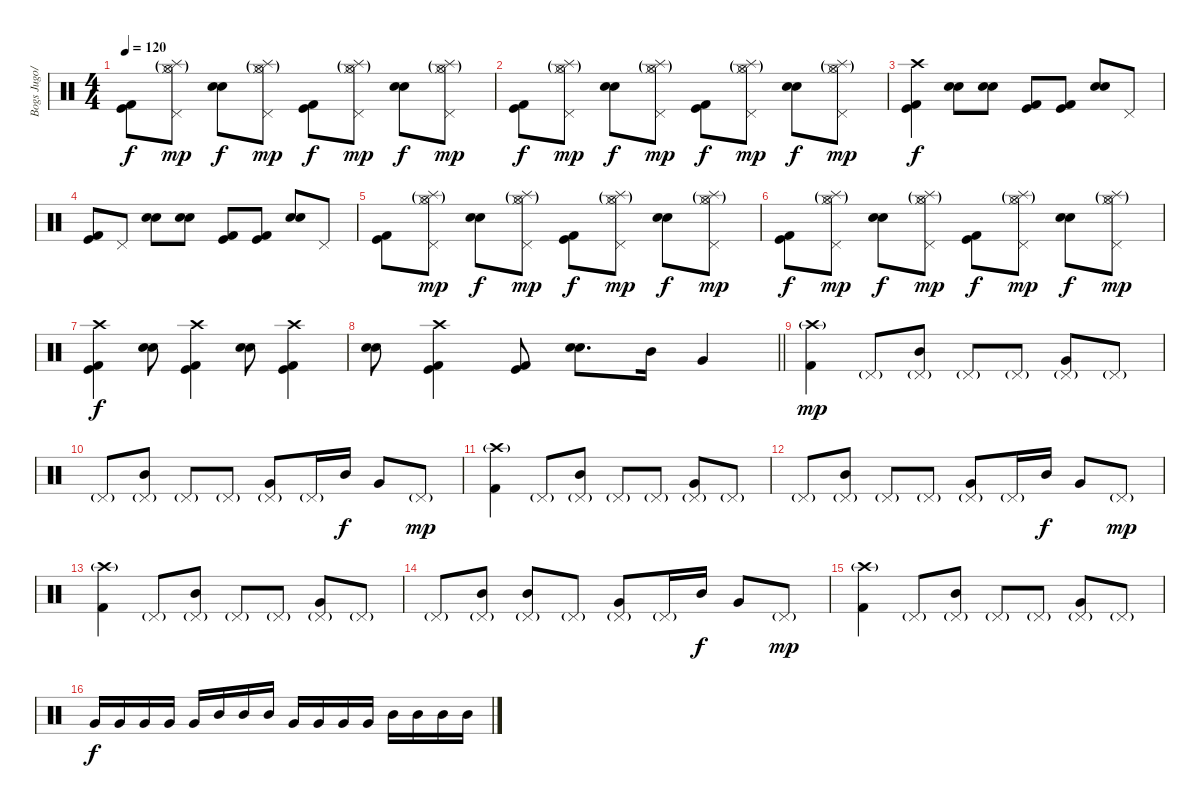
\track ("Bogs Jugo/Drums" "Bogs Jugo/") {instrument percussion}
\staff {score}
\articulation defaults
\ts (4 4)
\tempo 120
\clef neutral
\ks c
("Kick (hit) 2" "Kick (hit)").8{dy f} ("Hi-Hat (open)"{g} "Splash (hit)"{g} "Pedal Hi-Hat (hit)" "Hi-Hat (closed)").8{dy mp} ("Electric Snare (hit)" "Snare (hit) 2").8{dy f} ("Hi-Hat (open)"{g} "Splash (hit)"{g} "Pedal Hi-Hat (hit)" "Hi-Hat (closed)").8{dy mp} ("Kick (hit) 2" "Kick (hit)").8{dy f} ("Hi-Hat (open)"{g} "Splash (hit)"{g} "Pedal Hi-Hat (hit)" "Hi-Hat (closed)").8{dy mp} ("Electric Snare (hit)" "Snare (hit) 2").8{dy f} ("Hi-Hat (open)"{g} "Splash (hit)"{g} "Pedal Hi-Hat (hit)" "Hi-Hat (closed)").8{dy mp} |
("Kick (hit) 2" "Kick (hit)").8{dy f} ("Hi-Hat (open)"{g} "Splash (hit)"{g} "Pedal Hi-Hat (hit)" "Hi-Hat (closed)").8{dy mp} ("Electric Snare (hit)" "Snare (hit) 2").8{dy f} ("Hi-Hat (open)"{g} "Splash (hit)"{g} "Pedal Hi-Hat (hit)" "Hi-Hat (closed)").8{dy mp} ("Kick (hit) 2" "Kick (hit)").8{dy f} ("Hi-Hat (open)"{g} "Splash (hit)"{g} "Pedal Hi-Hat (hit)" "Hi-Hat (closed)").8{dy mp} ("Electric Snare (hit)" "Snare (hit) 2").8{dy f} ("Hi-Hat (open)"{g} "Splash (hit)"{g} "Pedal Hi-Hat (hit)" "Hi-Hat (closed)").8{dy mp} |
("Crash high (hit)" "Kick (hit) 2" "Kick (hit)").4{dy f} ("Electric Snare (hit)" "Snare (hit) 2").8 ("Electric Snare (hit)" "Snare (hit) 2").8 ("Kick (hit) 2" "Kick (hit)").8 ("Kick (hit) 2" "Kick (hit)").8 ("Electric Snare (hit)" "Snare (hit) 2").8 "Pedal Hi-Hat (hit)".8 |
("Kick (hit) 2" "Kick (hit)").8 "Pedal Hi-Hat (hit)".8 ("Electric Snare (hit)" "Snare (hit) 2").8 ("Electric Snare (hit)" "Snare (hit) 2").8 ("Kick (hit) 2" "Kick (hit)").8 ("Kick (hit) 2" "Kick (hit)").8 ("Electric Snare (hit)" "Snare (hit) 2").8 "Pedal Hi-Hat (hit)".8 |
("Kick (hit) 2" "Kick (hit)").8 ("Hi-Hat (open)"{g} "Splash (hit)"{g} "Pedal Hi-Hat (hit)" "Hi-Hat (closed)").8{dy mp} ("Electric Snare (hit)" "Snare (hit) 2").8{dy f} ("Hi-Hat (open)"{g} "Splash (hit)"{g} "Pedal Hi-Hat (hit)" "Hi-Hat (closed)").8{dy mp} ("Kick (hit) 2" "Kick (hit)").8{dy f} ("Hi-Hat (open)"{g} "Splash (hit)"{g} "Pedal Hi-Hat (hit)" "Hi-Hat (closed)").8{dy mp} ("Electric Snare (hit)" "Snare (hit) 2").8{dy f} ("Hi-Hat (open)"{g} "Splash (hit)"{g} "Pedal Hi-Hat (hit)" "Hi-Hat (closed)").8{dy mp} |
("Kick (hit) 2" "Kick (hit)").8{dy f} ("Hi-Hat (open)"{g} "Splash (hit)"{g} "Pedal Hi-Hat (hit)" "Hi-Hat (closed)").8{dy mp} ("Electric Snare (hit)" "Snare (hit) 2").8{dy f} ("Hi-Hat (open)"{g} "Splash (hit)"{g} "Pedal Hi-Hat (hit)" "Hi-Hat (closed)").8{dy mp} ("Kick (hit) 2" "Kick (hit)").8{dy f} ("Hi-Hat (open)"{g} "Splash (hit)"{g} "Pedal Hi-Hat (hit)" "Hi-Hat (closed)").8{dy mp} ("Electric Snare (hit)" "Snare (hit) 2").8{dy f} ("Hi-Hat (open)"{g} "Splash (hit)"{g} "Pedal Hi-Hat (hit)" "Hi-Hat (closed)").8{dy mp} |
("Crash high (hit)" "Kick (hit) 2" "Kick (hit)").4{dy f} ("Electric Snare (hit)" "Snare (hit) 2").8 ("Crash high (hit)" "Kick (hit) 2" "Kick (hit)").4 ("Electric Snare (hit)" "Snare (hit) 2").8 ("Crash high (hit)" "Kick (hit) 2" "Kick (hit)").4 |
\barLineRight lightlight
("Electric Snare (hit)" "Snare (hit) 2").8 ("Crash high (hit)" "Kick (hit) 2" "Kick (hit)").4 ("Kick (hit) 2" "Kick (hit)").8 ("Electric Snare (hit)" "Snare (hit) 2").8{d} "Mid Tom (hit)".16 "Very Low Tom (hit)".4 |
("Crash high (hit)"{g} "Kick (hit) 2").4{dy mp} "Pedal Hi-Hat (hit)"{g}.8 ("Pedal Hi-Hat (hit)"{g} "Mid Tom (hit)").8 "Pedal Hi-Hat (hit)"{g}.8 "Pedal Hi-Hat (hit)"{g}.8 ("Pedal Hi-Hat (hit)"{g} "Very Low Tom (hit)").8 "Pedal Hi-Hat (hit)"{g}.8 |
"Pedal Hi-Hat (hit)"{g}.8 ("Pedal Hi-Hat (hit)"{g} "Mid Tom (hit)").8 "Pedal Hi-Hat (hit)"{g}.8 "Pedal Hi-Hat (hit)"{g}.8 ("Pedal Hi-Hat (hit)"{g} "Very Low Tom (hit)").8 "Pedal Hi-Hat (hit)"{g}.16 "Mid Tom (hit)".16{dy f} "Very Low Tom (hit)".8 "Pedal Hi-Hat (hit)"{g}.8{dy mp} |
("Crash high (hit)"{g} "Kick (hit) 2").4 "Pedal Hi-Hat (hit)"{g}.8 ("Pedal Hi-Hat (hit)"{g} "Mid Tom (hit)").8 "Pedal Hi-Hat (hit)"{g}.8 "Pedal Hi-Hat (hit)"{g}.8 ("Pedal Hi-Hat (hit)"{g} "Very Low Tom (hit)").8 "Pedal Hi-Hat (hit)"{g}.8 |
"Pedal Hi-Hat (hit)"{g}.8 ("Pedal Hi-Hat (hit)"{g} "Mid Tom (hit)").8 "Pedal Hi-Hat (hit)"{g}.8 "Pedal Hi-Hat (hit)"{g}.8 ("Pedal Hi-Hat (hit)"{g} "Very Low Tom (hit)").8 "Pedal Hi-Hat (hit)"{g}.16 "Mid Tom (hit)".16{dy f} "Very Low Tom (hit)".8 "Pedal Hi-Hat (hit)"{g}.8{dy mp} |
("Crash high (hit)"{g} "Kick (hit) 2").4 "Pedal Hi-Hat (hit)"{g}.8 ("Pedal Hi-Hat (hit)"{g} "Mid Tom (hit)").8 "Pedal Hi-Hat (hit)"{g}.8 "Pedal Hi-Hat (hit)"{g}.8 ("Pedal Hi-Hat (hit)"{g} "Very Low Tom (hit)").8 "Pedal Hi-Hat (hit)"{g}.8 |
"Pedal Hi-Hat (hit)"{g}.8 ("Pedal Hi-Hat (hit)"{g} "Mid Tom (hit)").8 ("Pedal Hi-Hat (hit)"{g} "Mid Tom (hit)").8 "Pedal Hi-Hat (hit)"{g}.8 ("Pedal Hi-Hat (hit)"{g} "Very Low Tom (hit)").8 "Pedal Hi-Hat (hit)"{g}.16 "Mid Tom (hit)".16{dy f} "Very Low Tom (hit)".8 "Pedal Hi-Hat (hit)"{g}.8{dy mp} |
("Crash high (hit)"{g} "Kick (hit) 2").4 "Pedal Hi-Hat (hit)"{g}.8 ("Pedal Hi-Hat (hit)"{g} "Mid Tom (hit)").8 "Pedal Hi-Hat (hit)"{g}.8 "Pedal Hi-Hat (hit)"{g}.8 ("Pedal Hi-Hat (hit)"{g} "Very Low Tom (hit)").8 "Pedal Hi-Hat (hit)"{g}.8 |
"Very Low Tom (hit)".16{dy f} "Very Low Tom (hit)".16 "Very Low Tom (hit)".16 "Very Low Tom (hit)".16 "Very Low Tom (hit)".16 "Mid Tom (hit)".16 "Mid Tom (hit)".16 "Mid Tom (hit)".16 "Very Low Tom (hit)".16 "Very Low Tom (hit)".16 "Very Low Tom (hit)".16 "Very Low Tom (hit)".16 "Mid Tom (hit)".16 "Mid Tom (hit)".16 "Mid Tom (hit)".16 "Mid Tom (hit)".16
